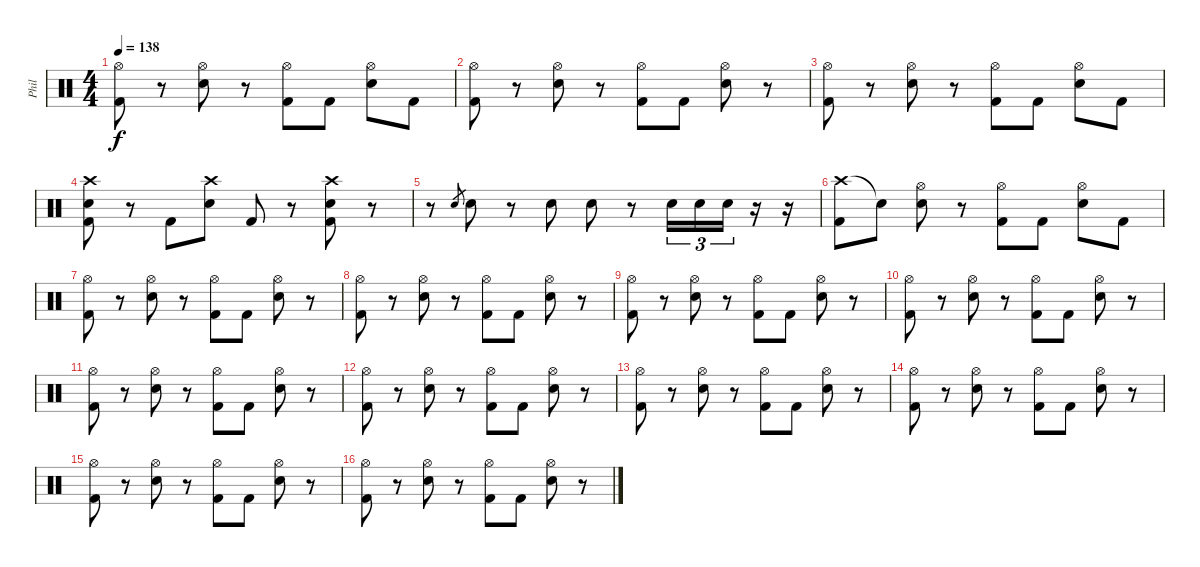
\track ("Phil" "Phil") {instrument percussion}
\staff {score}
\articulation defaults
\ts (4 4)
\tempo 138
\clef neutral
\ks c
("Hi-Hat (open)" "Kick (hit) 2").8{dy f} r.8 ("Hi-Hat (open)" "Snare (hit) 2").8 r.8 ("Hi-Hat (open)" "Kick (hit) 2").8 "Kick (hit) 2".8 ("Hi-Hat (open)" "Snare (hit) 2").8 "Kick (hit) 2".8 |
("Hi-Hat (open)" "Kick (hit) 2").8 r.8 ("Hi-Hat (open)" "Snare (hit) 2").8 r.8 ("Hi-Hat (open)" "Kick (hit) 2").8 "Kick (hit) 2".8 ("Hi-Hat (open)" "Snare (hit) 2").8 r.8 |
("Hi-Hat (open)" "Kick (hit) 2").8 r.8 ("Hi-Hat (open)" "Snare (hit) 2").8 r.8 ("Hi-Hat (open)" "Kick (hit) 2").8 "Kick (hit) 2".8 ("Hi-Hat (open)" "Snare (hit) 2").8 "Kick (hit) 2".8 |
("Crash high (hit)" "Snare (hit) 2" "Kick (hit) 2").8 r.8 "Kick (hit) 2".8 ("Crash high (hit)" "Snare (hit) 2").8 "Kick (hit) 2".8 r.8 ("Crash high (hit)" "Snare (hit) 2" "Kick (hit) 2").8 r.8 |
r.8 "Snare (hit) 2".8{gr} "Snare (hit) 2".8 r.8 "Snare (hit) 2".8 "Snare (hit) 2".8 r.8 "Snare (hit) 2".16{tu (3 2)} "Snare (hit) 2".16{tu (3 2)} "Snare (hit) 2".16{tu (3 2)} r.16 r.16 |
("Crash high (hit)" "Kick (hit) 2").8 "Snare (hit)"{t}.8 ("Hi-Hat (open)" "Snare (hit) 2").8 r.8 ("Hi-Hat (open)" "Kick (hit) 2").8 "Kick (hit) 2".8 ("Hi-Hat (open)" "Snare (hit) 2").8 "Kick (hit) 2".8 |
("Hi-Hat (open)" "Kick (hit) 2").8 r.8 ("Hi-Hat (open)" "Snare (hit) 2").8 r.8 ("Hi-Hat (open)" "Kick (hit) 2").8 "Kick (hit) 2".8 ("Hi-Hat (open)" "Snare (hit) 2").8 r.8 |
("Hi-Hat (open)" "Kick (hit) 2").8 r.8 ("Hi-Hat (open)" "Snare (hit) 2").8 r.8 ("Hi-Hat (open)" "Kick (hit) 2").8 "Kick (hit) 2".8 ("Hi-Hat (open)" "Snare (hit) 2").8 r.8 |
("Hi-Hat (open)" "Kick (hit) 2").8 r.8 ("Hi-Hat (open)" "Snare (hit) 2").8 r.8 ("Hi-Hat (open)" "Kick (hit) 2").8 "Kick (hit) 2".8 ("Hi-Hat (open)" "Snare (hit) 2").8 r.8 |
("Hi-Hat (open)" "Kick (hit) 2").8 r.8 ("Hi-Hat (open)" "Snare (hit) 2").8 r.8 ("Hi-Hat (open)" "Kick (hit) 2").8 "Kick (hit) 2".8 ("Hi-Hat (open)" "Snare (hit) 2").8 r.8 |
("Hi-Hat (open)" "Kick (hit) 2").8 r.8 ("Hi-Hat (open)" "Snare (hit) 2").8 r.8 ("Hi-Hat (open)" "Kick (hit) 2").8 "Kick (hit) 2".8 ("Hi-Hat (open)" "Snare (hit) 2").8 r.8 |
("Hi-Hat (open)" "Kick (hit) 2").8 r.8 ("Hi-Hat (open)" "Snare (hit) 2").8 r.8 ("Hi-Hat (open)" "Kick (hit) 2").8 "Kick (hit) 2".8 ("Hi-Hat (open)" "Snare (hit) 2").8 r.8 |
("Hi-Hat (open)" "Kick (hit) 2").8 r.8 ("Hi-Hat (open)" "Snare (hit) 2").8 r.8 ("Hi-Hat (open)" "Kick (hit) 2").8 "Kick (hit) 2".8 ("Hi-Hat (open)" "Snare (hit) 2").8 r.8 |
("Hi-Hat (open)" "Kick (hit) 2").8 r.8 ("Hi-Hat (open)" "Snare (hit) 2").8 r.8 ("Hi-Hat (open)" "Kick (hit) 2").8 "Kick (hit) 2".8 ("Hi-Hat (open)" "Snare (hit) 2").8 r.8 |
("Hi-Hat (open)" "Kick (hit) 2").8 r.8 ("Hi-Hat (open)" "Snare (hit) 2").8 r.8 ("Hi-Hat (open)" "Kick (hit) 2").8 "Kick (hit) 2".8 ("Hi-Hat (open)" "Snare (hit) 2").8 r.8 |
("Hi-Hat (open)" "Kick (hit) 2").8 r.8 ("Hi-Hat (open)" "Snare (hit) 2").8 r.8 ("Hi-Hat (open)" "Kick (hit) 2").8 "Kick (hit) 2".8 ("Hi-Hat (open)" "Snare (hit) 2").8 r.8
